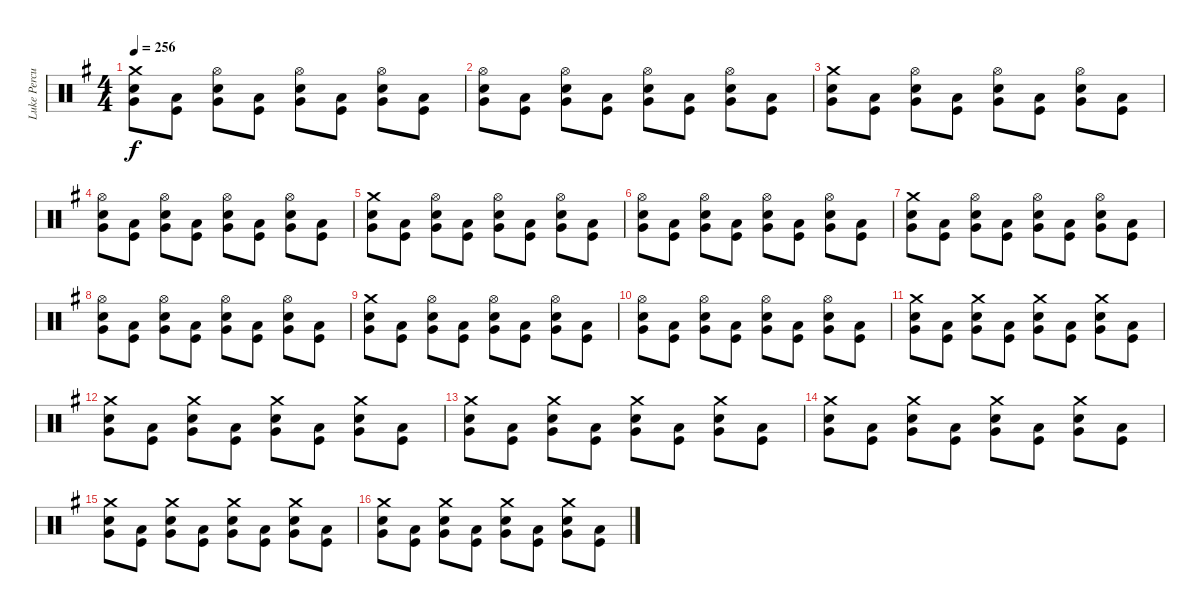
\track ("Luke Percussion" "Luke Percu") {instrument percussion}
\staff {score}
\articulation defaults
\ts (4 4)
\tempo 256
\clef neutral
\ks eminor
("Crash medium (hit)" "Snare (hit) 2" "Very Low Tom (hit)").8{dy f} ("Low Floor Tom (hit)" "Kick (hit)").8 ("Hi-Hat (open)" "Snare (hit) 2" "Very Low Tom (hit)").8 ("Low Floor Tom (hit)" "Kick (hit)").8 ("Hi-Hat (open)" "Snare (hit) 2" "Very Low Tom (hit)").8 ("Low Floor Tom (hit)" "Kick (hit)").8 ("Hi-Hat (open)" "Snare (hit) 2" "Very Low Tom (hit)").8 ("Low Floor Tom (hit)" "Kick (hit)").8 |
("Hi-Hat (open)" "Snare (hit) 2" "Very Low Tom (hit)").8 ("Low Floor Tom (hit)" "Kick (hit)").8 ("Hi-Hat (open)" "Snare (hit) 2" "Very Low Tom (hit)").8 ("Low Floor Tom (hit)" "Kick (hit)").8 ("Hi-Hat (open)" "Snare (hit) 2" "Very Low Tom (hit)").8 ("Low Floor Tom (hit)" "Kick (hit)").8 ("Hi-Hat (open)" "Snare (hit) 2" "Very Low Tom (hit)").8 ("Low Floor Tom (hit)" "Kick (hit)").8 |
("Crash medium (hit)" "Snare (hit) 2" "Very Low Tom (hit)").8 ("Low Floor Tom (hit)" "Kick (hit)").8 ("Hi-Hat (open)" "Snare (hit) 2" "Very Low Tom (hit)").8 ("Low Floor Tom (hit)" "Kick (hit)").8 ("Hi-Hat (open)" "Snare (hit) 2" "Very Low Tom (hit)").8 ("Low Floor Tom (hit)" "Kick (hit)").8 ("Hi-Hat (open)" "Snare (hit) 2" "Very Low Tom (hit)").8 ("Low Floor Tom (hit)" "Kick (hit)").8 |
("Hi-Hat (open)" "Snare (hit) 2" "Very Low Tom (hit)").8 ("Low Floor Tom (hit)" "Kick (hit)").8 ("Hi-Hat (open)" "Snare (hit) 2" "Very Low Tom (hit)").8 ("Low Floor Tom (hit)" "Kick (hit)").8 ("Hi-Hat (open)" "Snare (hit) 2" "Very Low Tom (hit)").8 ("Low Floor Tom (hit)" "Kick (hit)").8 ("Hi-Hat (open)" "Snare (hit) 2" "Very Low Tom (hit)").8 ("Low Floor Tom (hit)" "Kick (hit)").8 |
("Crash medium (hit)" "Snare (hit) 2" "Very Low Tom (hit)").8 ("Low Floor Tom (hit)" "Kick (hit)").8 ("Hi-Hat (open)" "Snare (hit) 2" "Very Low Tom (hit)").8 ("Low Floor Tom (hit)" "Kick (hit)").8 ("Hi-Hat (open)" "Snare (hit) 2" "Very Low Tom (hit)").8 ("Low Floor Tom (hit)" "Kick (hit)").8 ("Hi-Hat (open)" "Snare (hit) 2" "Very Low Tom (hit)").8 ("Low Floor Tom (hit)" "Kick (hit)").8 |
("Hi-Hat (open)" "Snare (hit) 2" "Very Low Tom (hit)").8 ("Low Floor Tom (hit)" "Kick (hit)").8 ("Hi-Hat (open)" "Snare (hit) 2" "Very Low Tom (hit)").8 ("Low Floor Tom (hit)" "Kick (hit)").8 ("Hi-Hat (open)" "Snare (hit) 2" "Very Low Tom (hit)").8 ("Low Floor Tom (hit)" "Kick (hit)").8 ("Hi-Hat (open)" "Snare (hit) 2" "Very Low Tom (hit)").8 ("Low Floor Tom (hit)" "Kick (hit)").8 |
("Crash medium (hit)" "Snare (hit) 2" "Very Low Tom (hit)").8 ("Low Floor Tom (hit)" "Kick (hit)").8 ("Hi-Hat (open)" "Snare (hit) 2" "Very Low Tom (hit)").8 ("Low Floor Tom (hit)" "Kick (hit)").8 ("Hi-Hat (open)" "Snare (hit) 2" "Very Low Tom (hit)").8 ("Low Floor Tom (hit)" "Kick (hit)").8 ("Hi-Hat (open)" "Snare (hit) 2" "Very Low Tom (hit)").8 ("Low Floor Tom (hit)" "Kick (hit)").8 |
("Hi-Hat (open)" "Snare (hit) 2" "Very Low Tom (hit)").8 ("Low Floor Tom (hit)" "Kick (hit)").8 ("Hi-Hat (open)" "Snare (hit) 2" "Very Low Tom (hit)").8 ("Low Floor Tom (hit)" "Kick (hit)").8 ("Hi-Hat (open)" "Snare (hit) 2" "Very Low Tom (hit)").8 ("Low Floor Tom (hit)" "Kick (hit)").8 ("Hi-Hat (open)" "Snare (hit) 2" "Very Low Tom (hit)").8 ("Low Floor Tom (hit)" "Kick (hit)").8 |
("Crash medium (hit)" "Snare (hit) 2" "Very Low Tom (hit)").8 ("Low Floor Tom (hit)" "Kick (hit)").8 ("Hi-Hat (open)" "Snare (hit) 2" "Very Low Tom (hit)").8 ("Low Floor Tom (hit)" "Kick (hit)").8 ("Hi-Hat (open)" "Snare (hit) 2" "Very Low Tom (hit)").8 ("Low Floor Tom (hit)" "Kick (hit)").8 ("Hi-Hat (open)" "Snare (hit) 2" "Very Low Tom (hit)").8 ("Low Floor Tom (hit)" "Kick (hit)").8 |
("Hi-Hat (open)" "Snare (hit) 2" "Very Low Tom (hit)").8 ("Low Floor Tom (hit)" "Kick (hit)").8 ("Hi-Hat (open)" "Snare (hit) 2" "Very Low Tom (hit)").8 ("Low Floor Tom (hit)" "Kick (hit)").8 ("Hi-Hat (open)" "Snare (hit) 2" "Very Low Tom (hit)").8 ("Low Floor Tom (hit)" "Kick (hit)").8 ("Hi-Hat (open)" "Snare (hit) 2" "Very Low Tom (hit)").8 ("Low Floor Tom (hit)" "Kick (hit)").8 |
("Crash medium (hit)" "Snare (hit) 2" "Very Low Tom (hit)").8 ("Low Floor Tom (hit)" "Kick (hit)").8 ("Crash medium (hit)" "Snare (hit) 2" "Very Low Tom (hit)").8 ("Low Floor Tom (hit)" "Kick (hit)").8 ("Crash medium (hit)" "Snare (hit) 2" "Very Low Tom (hit)").8 ("Low Floor Tom (hit)" "Kick (hit)").8 ("Crash medium (hit)" "Snare (hit) 2" "Very Low Tom (hit)").8 ("Low Floor Tom (hit)" "Kick (hit)").8 |
("Crash medium (hit)" "Snare (hit) 2" "Very Low Tom (hit)").8 ("Low Floor Tom (hit)" "Kick (hit)").8 ("Crash medium (hit)" "Snare (hit) 2" "Very Low Tom (hit)").8 ("Low Floor Tom (hit)" "Kick (hit)").8 ("Crash medium (hit)" "Snare (hit) 2" "Very Low Tom (hit)").8 ("Low Floor Tom (hit)" "Kick (hit)").8 ("Crash medium (hit)" "Snare (hit) 2" "Very Low Tom (hit)").8 ("Low Floor Tom (hit)" "Kick (hit)").8 |
("Crash medium (hit)" "Snare (hit) 2" "Very Low Tom (hit)").8 ("Low Floor Tom (hit)" "Kick (hit)").8 ("Crash medium (hit)" "Snare (hit) 2" "Very Low Tom (hit)").8 ("Low Floor Tom (hit)" "Kick (hit)").8 ("Crash medium (hit)" "Snare (hit) 2" "Very Low Tom (hit)").8 ("Low Floor Tom (hit)" "Kick (hit)").8 ("Crash medium (hit)" "Snare (hit) 2" "Very Low Tom (hit)").8 ("Low Floor Tom (hit)" "Kick (hit)").8 |
("Crash medium (hit)" "Snare (hit) 2" "Very Low Tom (hit)").8 ("Low Floor Tom (hit)" "Kick (hit)").8 ("Crash medium (hit)" "Snare (hit) 2" "Very Low Tom (hit)").8 ("Low Floor Tom (hit)" "Kick (hit)").8 ("Crash medium (hit)" "Snare (hit) 2" "Very Low Tom (hit)").8 ("Low Floor Tom (hit)" "Kick (hit)").8 ("Crash medium (hit)" "Snare (hit) 2" "Very Low Tom (hit)").8 ("Low Floor Tom (hit)" "Kick (hit)").8 |
("Crash medium (hit)" "Snare (hit) 2" "Very Low Tom (hit)").8 ("Low Floor Tom (hit)" "Kick (hit)").8 ("Crash medium (hit)" "Snare (hit) 2" "Very Low Tom (hit)").8 ("Low Floor Tom (hit)" "Kick (hit)").8 ("Crash medium (hit)" "Snare (hit) 2" "Very Low Tom (hit)").8 ("Low Floor Tom (hit)" "Kick (hit)").8 ("Crash medium (hit)" "Snare (hit) 2" "Very Low Tom (hit)").8 ("Low Floor Tom (hit)" "Kick (hit)").8 |
("Crash medium (hit)" "Snare (hit) 2" "Very Low Tom (hit)").8 ("Low Floor Tom (hit)" "Kick (hit)").8 ("Crash medium (hit)" "Snare (hit) 2" "Very Low Tom (hit)").8 ("Low Floor Tom (hit)" "Kick (hit)").8 ("Crash medium (hit)" "Snare (hit) 2" "Very Low Tom (hit)").8 ("Low Floor Tom (hit)" "Kick (hit)").8 ("Crash medium (hit)" "Snare (hit) 2" "Very Low Tom (hit)").8 ("Low Floor Tom (hit)" "Kick (hit)").8
